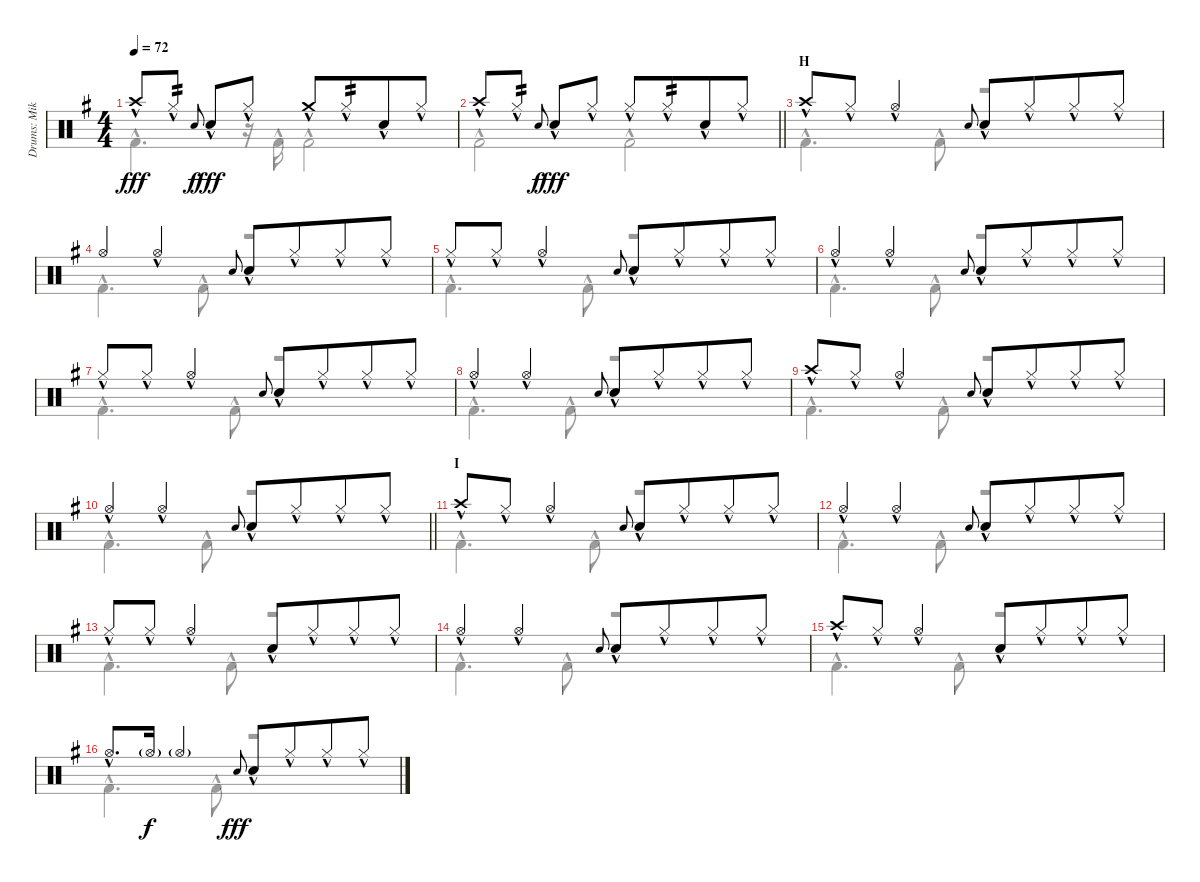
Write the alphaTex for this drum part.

\track ("Drums: Mike" "Drums: Mik") {instrument percussion}
\staff {score}
\articulation defaults
\voice
\ts (4 4)
\tempo 72
\clef neutral
\ks g "Crash high (hit)"{hac}.8{dy fff} "Hi-Hat (closed)"{hac}.8{tp 2} "Electric Snare (hit)".8{gr onbeat dy f beam merge} "Snare (hit) 2"{hac}.8{dy fff} "Hi-Hat (closed)"{hac}.8 "Crash medium (hit)"{hac}.8 "Hi-Hat (closed)"{hac}.8{tp 2 beam merge} "Snare (hit) 2"{hac}.8 "Hi-Hat (closed)"{hac}.8
|
\barLineRight lightlight "Crash high (hit)"{hac}.8 "Hi-Hat (closed)"{hac}.8{tp 2} "Electric Snare (hit)".8{gr onbeat dy f beam merge} "Snare (hit) 2"{hac}.8{dy fff} "Hi-Hat (closed)"{hac}.8 "Hi-Hat (closed)"{hac}.8 "Hi-Hat (closed)"{hac}.8{tp 2 beam merge} "Snare (hit) 2"{hac}.8 "Hi-Hat (closed)"{hac}.8
|
\section ("" "H")
"Crash high (hit)"{hac}.8 "Hi-Hat (closed)"{hac}.8 "Hi-Hat (open)"{hac}.4 "Electric Snare (hit)".8{gr onbeat} "Snare (hit) 2"{hac}.8 "Hi-Hat (closed)"{hac}.8{beam merge} "Hi-Hat (closed)"{hac}.8 "Hi-Hat (closed)"{hac}.8 |
"Hi-Hat (open)".4 "Hi-Hat (open)"{hac}.4 "Electric Snare (hit)".8{gr onbeat} "Snare (hit) 2"{hac}.8 "Hi-Hat (closed)"{hac}.8{beam merge} "Hi-Hat (closed)"{hac}.8 "Hi-Hat (closed)"{hac}.8 |
"Hi-Hat (closed)"{hac}.8 "Hi-Hat (closed)"{hac}.8 "Hi-Hat (open)"{hac}.4 "Electric Snare (hit)".8{gr onbeat} "Snare (hit) 2"{hac}.8 "Hi-Hat (closed)"{hac}.8{beam merge} "Hi-Hat (closed)"{hac}.8 "Hi-Hat (closed)"{hac}.8 |
"Hi-Hat (open)"{hac}.4 "Hi-Hat (open)"{hac}.4 "Electric Snare (hit)".8{gr onbeat} "Snare (hit) 2"{hac}.8 "Hi-Hat (closed)"{hac}.8{beam merge} "Hi-Hat (closed)"{hac}.8 "Hi-Hat (closed)"{hac}.8 |
"Hi-Hat (closed)"{hac}.8 "Hi-Hat (closed)"{hac}.8 "Hi-Hat (open)"{hac}.4 "Electric Snare (hit)".8{gr onbeat} "Snare (hit) 2"{hac}.8 "Hi-Hat (closed)"{hac}.8{beam merge} "Hi-Hat (closed)"{hac}.8 "Hi-Hat (closed)"{hac}.8 |
"Hi-Hat (open)"{hac}.4 "Hi-Hat (open)"{hac}.4 "Electric Snare (hit)".8{gr onbeat} "Snare (hit) 2"{hac}.8 "Hi-Hat (closed)"{hac}.8{beam merge} "Hi-Hat (closed)"{hac}.8 "Hi-Hat (closed)"{hac}.8 |
"Crash high (hit)"{hac}.8 "Hi-Hat (closed)"{hac}.8 "Hi-Hat (open)"{hac}.4 "Electric Snare (hit)".8{gr onbeat} "Snare (hit) 2"{hac}.8 "Hi-Hat (closed)"{hac}.8{beam merge} "Hi-Hat (closed)"{hac}.8 "Hi-Hat (closed)"{hac}.8 |
\barLineRight lightlight "Hi-Hat (open)"{hac}.4 "Hi-Hat (open)"{hac}.4 "Electric Snare (hit)".8{gr onbeat} "Snare (hit) 2"{hac}.8 "Hi-Hat (closed)"{hac}.8{beam merge} "Hi-Hat (closed)"{hac}.8 "Hi-Hat (closed)"{hac}.8
|
\section ("" "I")
"Crash high (hit)"{hac}.8 "Hi-Hat (closed)"{hac}.8 "Hi-Hat (open)"{hac}.4 "Snare (hit) 2".8{gr onbeat} "Electric Snare (hit)"{hac}.8 "Hi-Hat (closed)"{hac}.8{beam merge} "Hi-Hat (closed)"{hac}.8 "Hi-Hat (closed)"{hac}.8 |
"Hi-Hat (open)"{hac}.4 "Hi-Hat (open)"{hac}.4 "Electric Snare (hit)".8{gr onbeat} "Snare (hit) 2"{hac}.8 "Hi-Hat (closed)"{hac}.8{beam merge} "Hi-Hat (closed)"{hac}.8 "Hi-Hat (closed)"{hac}.8 |
"Hi-Hat (closed)"{hac}.8 "Hi-Hat (closed)"{hac}.8 "Hi-Hat (open)"{hac}.4 "Electric Snare (hit)"{hac}.8 "Hi-Hat (closed)"{hac}.8{beam merge} "Hi-Hat (closed)"{hac}.8 "Hi-Hat (closed)"{hac}.8 |
"Hi-Hat (open)"{hac}.4 "Hi-Hat (open)"{hac}.4 "Electric Snare (hit)".8{gr onbeat} "Snare (hit) 2"{hac}.8 "Hi-Hat (closed)"{hac}.8{beam merge} "Hi-Hat (closed)"{hac}.8 "Hi-Hat (closed)"{hac}.8 |
"Crash high (hit)"{hac}.8 "Hi-Hat (closed)"{hac}.8 "Hi-Hat (open)"{hac}.4 "Electric Snare (hit)"{hac}.8 "Hi-Hat (closed)"{hac}.8{beam merge} "Hi-Hat (closed)"{hac}.8 "Hi-Hat (closed)"{hac}.8 |
"Hi-Hat (open)"{hac}.8{d} "Hi-Hat (open)"{g}.16{dy f} "Hi-Hat (open)"{g}.4 "Electric Snare (hit)".8{gr onbeat dy fff} "Snare (hit) 2"{hac}.8 "Hi-Hat (closed)"{hac}.8{beam merge} "Hi-Hat (closed)"{hac}.8 "Hi-Hat (closed)"{hac}.8
\voice
\clef neutral
\ottava regular
\simile none
\ks g "Kick (hit) 2"{hac}.4{d dy fff}
r.16 "Kick (hit) 2"{hac}.16 "Kick (hit) 2"{hac}.2 |
\barLineRight lightlight "Kick (hit) 2"{hac}.2 "Kick (hit) 2"{hac}.2
|
"Kick (hit) 2"{hac}.4{d} "Kick (hit) 2"{hac}.8 r.2 |
"Kick (hit) 2"{hac}.4{d} "Kick (hit) 2"{hac}.8 r.2 |
"Kick (hit) 2"{hac}.4{d} "Kick (hit) 2"{hac}.8 r.2 |
"Kick (hit) 2"{hac}.4{d} "Kick (hit) 2"{hac}.8 r.2 |
"Kick (hit) 2"{hac}.4{d} "Kick (hit) 2"{hac}.8 r.2 |
"Kick (hit) 2"{hac}.4{d} "Kick (hit) 2"{hac}.8 r.2 |
"Kick (hit) 2"{hac}.4{d} "Kick (hit) 2"{hac}.8 r.2 |
\barLineRight lightlight "Kick (hit) 2"{hac}.4{d} "Kick (hit) 2"{hac}.8
r.2 |
"Kick (hit) 2"{hac}.4{d} "Kick (hit) 2"{hac}.8 r.2 |
"Kick (hit) 2"{hac}.4{d} "Kick (hit) 2"{hac}.8 r.2 |
"Kick (hit) 2"{hac}.4{d} "Kick (hit) 2"{hac}.8 r.2 |
"Kick (hit) 2"{hac}.4{d} "Kick (hit) 2"{hac}.8 r.2 |
"Kick (hit) 2"{hac}.4{d} "Kick (hit) 2"{hac}.8 r.2 |
"Kick (hit) 2"{hac}.4{d} "Kick (hit) 2"{hac}.8 r.2
